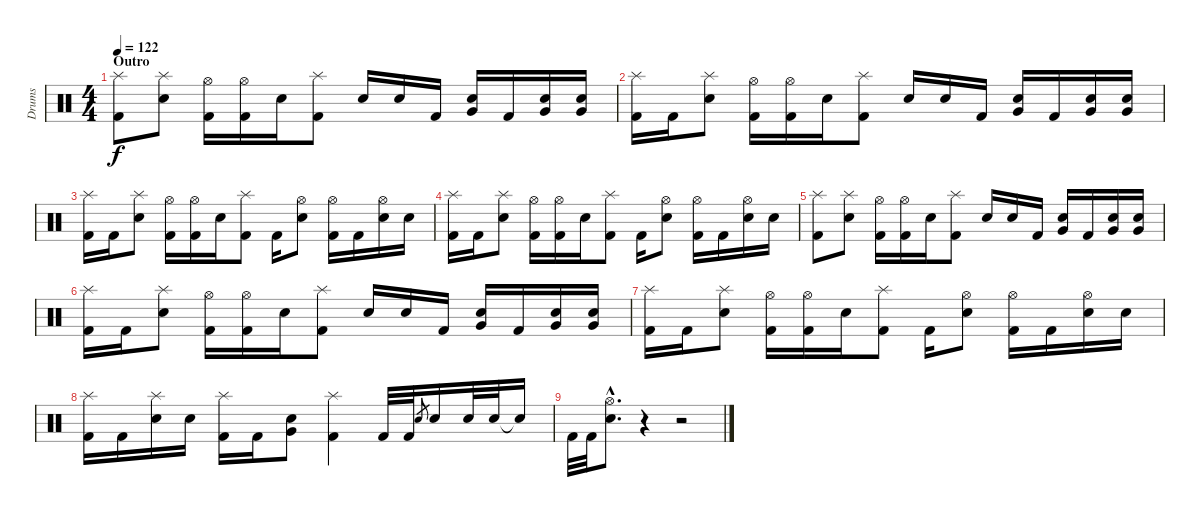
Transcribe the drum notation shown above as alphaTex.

\track ("Drums" "Drums") {instrument percussion}
\staff {score}
\articulation defaults
\ts (4 4)
\section ("" "Outro")
\tempo 122
\clef neutral
\ks c
("Splash (hit)" "Kick (hit) 2").8{dy f} ("Splash (hit)" "Electric Snare (hit)").8 ("Hi-Hat (open)" "Kick (hit) 2").16 ("Hi-Hat (open)" "Kick (hit) 2").16 "Electric Snare (hit)".16 ("Splash (hit)" "Kick (hit) 2").8 "Electric Snare (hit)".16 "Electric Snare (hit)".16 "Kick (hit) 2".16 ("Very Low Tom (hit)" "Electric Snare (hit)").16 "Kick (hit) 2".16 ("Very Low Tom (hit)" "Electric Snare (hit)").16 ("Very Low Tom (hit)" "Electric Snare (hit)").16 |
("Splash (hit)" "Kick (hit) 2").16 "Kick (hit) 2".16 ("Splash (hit)" "Electric Snare (hit)").8 ("Hi-Hat (open)" "Kick (hit) 2").16 ("Hi-Hat (open)" "Kick (hit) 2").16 "Electric Snare (hit)".16 ("Splash (hit)" "Kick (hit) 2").8 "Electric Snare (hit)".16 "Electric Snare (hit)".16 "Kick (hit) 2".16 ("Very Low Tom (hit)" "Electric Snare (hit)").16 "Kick (hit) 2".16 ("Very Low Tom (hit)" "Electric Snare (hit)").16 ("Very Low Tom (hit)" "Electric Snare (hit)").16 |
("Splash (hit)" "Kick (hit) 2").16 "Kick (hit) 2".16 ("Splash (hit)" "Electric Snare (hit)").8 ("Hi-Hat (open)" "Kick (hit) 2").16 ("Hi-Hat (open)" "Kick (hit) 2").16 "Electric Snare (hit)".16 ("Splash (hit)" "Kick (hit) 2").8 "Kick (hit) 2".16 ("Hi-Hat (open)" "Electric Snare (hit)").8 ("Hi-Hat (open)" "Kick (hit) 2").16 "Kick (hit) 2".16 ("Hi-Hat (open)" "Electric Snare (hit)").16 "Electric Snare (hit)".16 |
("Splash (hit)" "Kick (hit) 2").16 "Kick (hit) 2".16 ("Splash (hit)" "Electric Snare (hit)").8 ("Hi-Hat (open)" "Kick (hit) 2").16 ("Hi-Hat (open)" "Kick (hit) 2").16 "Electric Snare (hit)".16 ("Splash (hit)" "Kick (hit) 2").8 "Kick (hit) 2".16 ("Hi-Hat (open)" "Electric Snare (hit)").8 ("Hi-Hat (open)" "Kick (hit) 2").16 "Kick (hit) 2".16 ("Hi-Hat (open)" "Electric Snare (hit)").16 "Electric Snare (hit)".16 |
("Splash (hit)" "Kick (hit) 2").8 ("Splash (hit)" "Electric Snare (hit)").8 ("Hi-Hat (open)" "Kick (hit) 2").16 ("Hi-Hat (open)" "Kick (hit) 2").16 "Electric Snare (hit)".16 ("Splash (hit)" "Kick (hit) 2").8 "Electric Snare (hit)".16 "Electric Snare (hit)".16 "Kick (hit) 2".16 ("Very Low Tom (hit)" "Electric Snare (hit)").16 "Kick (hit) 2".16 ("Very Low Tom (hit)" "Electric Snare (hit)").16 ("Very Low Tom (hit)" "Electric Snare (hit)").16 |
("Splash (hit)" "Kick (hit) 2").16 "Kick (hit) 2".16 ("Splash (hit)" "Electric Snare (hit)").8 ("Hi-Hat (open)" "Kick (hit) 2").16 ("Hi-Hat (open)" "Kick (hit) 2").16 "Electric Snare (hit)".16 ("Splash (hit)" "Kick (hit) 2").8 "Electric Snare (hit)".16 "Electric Snare (hit)".16 "Kick (hit) 2".16 ("Very Low Tom (hit)" "Electric Snare (hit)").16 "Kick (hit) 2".16 ("Very Low Tom (hit)" "Electric Snare (hit)").16 ("Very Low Tom (hit)" "Electric Snare (hit)").16 |
("Splash (hit)" "Kick (hit) 2").16 "Kick (hit) 2".16 ("Splash (hit)" "Electric Snare (hit)").8 ("Hi-Hat (open)" "Kick (hit) 2").16 ("Hi-Hat (open)" "Kick (hit) 2").16 "Electric Snare (hit)".16 ("Splash (hit)" "Kick (hit) 2").8 "Kick (hit) 2".16 ("Hi-Hat (open)" "Electric Snare (hit)").8 ("Hi-Hat (open)" "Kick (hit) 2").16 "Kick (hit) 2".16 ("Hi-Hat (open)" "Electric Snare (hit)").16 "Electric Snare (hit)".16 |
("Splash (hit)" "Kick (hit) 2").16 "Kick (hit) 2".16 ("Splash (hit)" "Electric Snare (hit)").16 "Electric Snare (hit)".16 ("Splash (hit)" "Kick (hit) 2").16 "Kick (hit) 2".16 ("Very Low Tom (hit)" "Electric Snare (hit)").8 ("Splash (hit)" "Kick (hit) 2").4 "Kick (hit) 2".32 "Kick (hit) 2".32 "Electric Snare (hit)".8{gr} "Electric Snare (hit)".16 "Electric Snare (hit)".32 "Electric Snare (hit)".32 "Snare (hit)"{t}.16 |
"Kick (hit) 2".32 "Kick (hit) 2".32 ("Hi-Hat (open)"{hac} "Electric Snare (hit)"{hac}).8{d} r.4 r.2
